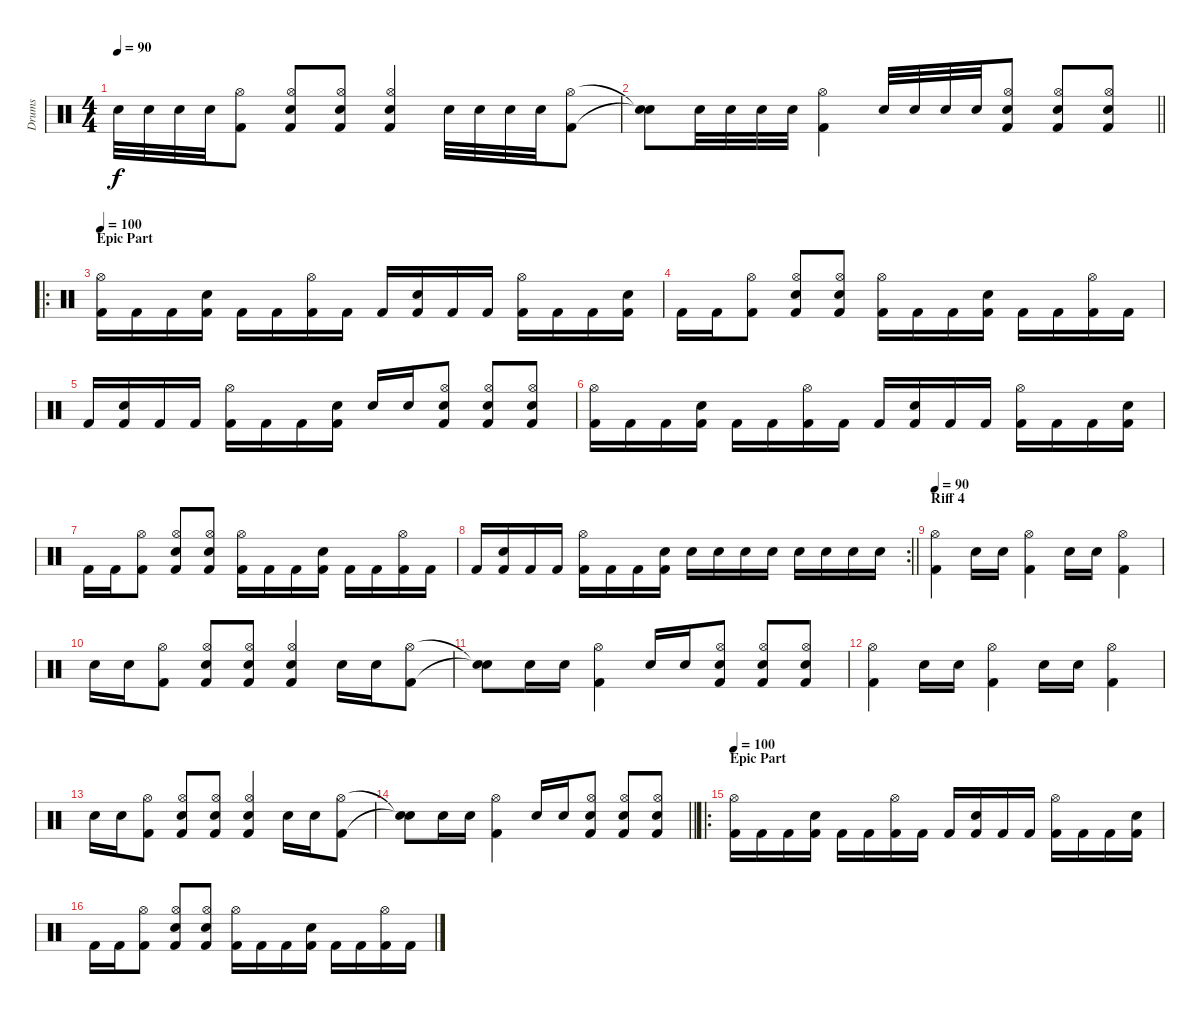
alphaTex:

\track ("Drums" "Drums") {instrument percussion}
\staff {score}
\articulation defaults
\ts (4 4)
\tempo 90
\clef neutral
\ks c "Snare (hit) 2".32{dy f} "Snare (hit) 2".32 "Snare (hit) 2".32 "Snare (hit) 2".32
("Hi-Hat (open)" "Kick (hit) 2").8 ("Hi-Hat (open)" "Snare (hit) 2" "Kick (hit) 2").8 ("Hi-Hat (open)" "Snare (hit) 2" "Kick (hit) 2").8 ("Hi-Hat (open)" "Snare (hit) 2" "Kick (hit) 2").4 "Snare (hit) 2".32 "Snare (hit) 2".32 "Snare (hit) 2".32 "Snare (hit) 2".32 ("Hi-Hat (open)" "Kick (hit) 2").8 |
\barLineRight lightlight
("Snare (hit)"{t} "Snare (hit)"{t}).8 "Snare (hit) 2".32 "Snare (hit) 2".32 "Snare (hit) 2".32 "Snare (hit) 2".32 ("Hi-Hat (open)" "Kick (hit) 2").4 "Snare (hit) 2".32 "Snare (hit) 2".32 "Snare (hit) 2".32 "Snare (hit) 2".32 ("Hi-Hat (open)" "Snare (hit) 2" "Kick (hit) 2").8 ("Hi-Hat (open)" "Snare (hit) 2" "Kick (hit) 2").8 ("Hi-Hat (open)" "Snare (hit) 2" "Kick (hit) 2").8 |
\ro
\section ("" "Epic Part")
\tempo 100
("Hi-Hat (open)" "Kick (hit) 2").16 "Kick (hit) 2".16 "Kick (hit) 2".16 ("Snare (hit) 2" "Kick (hit) 2").16 "Kick (hit) 2".16 "Kick (hit) 2".16 ("Hi-Hat (open)" "Kick (hit) 2").16 "Kick (hit) 2".16 "Kick (hit) 2".16 ("Snare (hit) 2" "Kick (hit) 2").16 "Kick (hit) 2".16 "Kick (hit) 2".16 ("Hi-Hat (open)" "Kick (hit) 2").16 "Kick (hit) 2".16 "Kick (hit) 2".16 ("Snare (hit) 2" "Kick (hit) 2").16 |
"Kick (hit) 2".16 "Kick (hit) 2".16 ("Hi-Hat (open)" "Kick (hit) 2").8 ("Hi-Hat (open)" "Snare (hit) 2" "Kick (hit) 2").8 ("Hi-Hat (open)" "Snare (hit) 2" "Kick (hit) 2").8 ("Hi-Hat (open)" "Kick (hit) 2").16 "Kick (hit) 2".16 "Kick (hit) 2".16 ("Snare (hit) 2" "Kick (hit) 2").16 "Kick (hit) 2".16 "Kick (hit) 2".16 ("Hi-Hat (open)" "Kick (hit) 2").16 "Kick (hit) 2".16 |
"Kick (hit) 2".16 ("Snare (hit) 2" "Kick (hit) 2").16 "Kick (hit) 2".16 "Kick (hit) 2".16 ("Hi-Hat (open)" "Kick (hit) 2").16 "Kick (hit) 2".16 "Kick (hit) 2".16 ("Snare (hit) 2" "Kick (hit) 2").16 "Snare (hit) 2".16 "Snare (hit) 2".16 ("Hi-Hat (open)" "Snare (hit) 2" "Kick (hit) 2").8 ("Hi-Hat (open)" "Snare (hit) 2" "Kick (hit) 2").8 ("Hi-Hat (open)" "Snare (hit) 2" "Kick (hit) 2").8 |
("Hi-Hat (open)" "Kick (hit) 2").16 "Kick (hit) 2".16 "Kick (hit) 2".16 ("Snare (hit) 2" "Kick (hit) 2").16 "Kick (hit) 2".16 "Kick (hit) 2".16 ("Hi-Hat (open)" "Kick (hit) 2").16 "Kick (hit) 2".16 "Kick (hit) 2".16 ("Snare (hit) 2" "Kick (hit) 2").16 "Kick (hit) 2".16 "Kick (hit) 2".16 ("Hi-Hat (open)" "Kick (hit) 2").16 "Kick (hit) 2".16 "Kick (hit) 2".16 ("Snare (hit) 2" "Kick (hit) 2").16 |
"Kick (hit) 2".16 "Kick (hit) 2".16 ("Hi-Hat (open)" "Kick (hit) 2").8 ("Hi-Hat (open)" "Snare (hit) 2" "Kick (hit) 2").8 ("Hi-Hat (open)" "Snare (hit) 2" "Kick (hit) 2").8 ("Hi-Hat (open)" "Kick (hit) 2").16 "Kick (hit) 2".16 "Kick (hit) 2".16 ("Snare (hit) 2" "Kick (hit) 2").16 "Kick (hit) 2".16 "Kick (hit) 2".16 ("Hi-Hat (open)" "Kick (hit) 2").16 "Kick (hit) 2".16 |
\rc 2
\barLineRight lightlight "Kick (hit) 2".16
("Snare (hit) 2" "Kick (hit) 2").16 "Kick (hit) 2".16 "Kick (hit) 2".16 ("Hi-Hat (open)" "Kick (hit) 2").16 "Kick (hit) 2".16 "Kick (hit) 2".16 ("Snare (hit) 2" "Kick (hit) 2").16 "Snare (hit) 2".16 "Snare (hit) 2".16 "Snare (hit) 2".16 "Snare (hit) 2".16 "Snare (hit) 2".16 "Snare (hit) 2".16 "Snare (hit) 2".16 "Snare (hit) 2".16 |
\section ("" "Riff 4")
\tempo 90
("Hi-Hat (open)" "Kick (hit) 2").4 "Snare (hit) 2".16 "Snare (hit) 2".16 ("Hi-Hat (open)" "Kick (hit) 2").4 "Snare (hit) 2".16 "Snare (hit) 2".16 ("Hi-Hat (open)" "Kick (hit) 2").4 |
"Snare (hit) 2".16 "Snare (hit) 2".16 ("Hi-Hat (open)" "Kick (hit) 2").8 ("Hi-Hat (open)" "Snare (hit) 2" "Kick (hit) 2").8 ("Hi-Hat (open)" "Snare (hit) 2" "Kick (hit) 2").8 ("Hi-Hat (open)" "Snare (hit) 2" "Kick (hit) 2").4 "Snare (hit) 2".16 "Snare (hit) 2".16 ("Hi-Hat (open)" "Kick (hit) 2").8 |
("Snare (hit)"{t} "Snare (hit)"{t}).8 "Snare (hit) 2".16 "Snare (hit) 2".16 ("Hi-Hat (open)" "Kick (hit) 2").4 "Snare (hit) 2".16 "Snare (hit) 2".16 ("Hi-Hat (open)" "Snare (hit) 2" "Kick (hit) 2").8 ("Hi-Hat (open)" "Snare (hit) 2" "Kick (hit) 2").8 ("Hi-Hat (open)" "Snare (hit) 2" "Kick (hit) 2").8 |
("Hi-Hat (open)" "Kick (hit) 2").4 "Snare (hit) 2".16 "Snare (hit) 2".16 ("Hi-Hat (open)" "Kick (hit) 2").4 "Snare (hit) 2".16 "Snare (hit) 2".16 ("Hi-Hat (open)" "Kick (hit) 2").4 |
"Snare (hit) 2".16 "Snare (hit) 2".16 ("Hi-Hat (open)" "Kick (hit) 2").8 ("Hi-Hat (open)" "Snare (hit) 2" "Kick (hit) 2").8 ("Hi-Hat (open)" "Snare (hit) 2" "Kick (hit) 2").8 ("Hi-Hat (open)" "Snare (hit) 2" "Kick (hit) 2").4 "Snare (hit) 2".16 "Snare (hit) 2".16 ("Hi-Hat (open)" "Kick (hit) 2").8 |
\barLineRight lightlight
("Snare (hit)"{t} "Snare (hit)"{t}).8 "Snare (hit) 2".16 "Snare (hit) 2".16 ("Hi-Hat (open)" "Kick (hit) 2").4 "Snare (hit) 2".16 "Snare (hit) 2".16 ("Hi-Hat (open)" "Snare (hit) 2" "Kick (hit) 2").8 ("Hi-Hat (open)" "Snare (hit) 2" "Kick (hit) 2").8 ("Hi-Hat (open)" "Snare (hit) 2" "Kick (hit) 2").8 |
\ro
\section ("" "Epic Part")
\tempo 100
("Hi-Hat (open)" "Kick (hit) 2").16 "Kick (hit) 2".16 "Kick (hit) 2".16 ("Snare (hit) 2" "Kick (hit) 2").16 "Kick (hit) 2".16 "Kick (hit) 2".16 ("Hi-Hat (open)" "Kick (hit) 2").16 "Kick (hit) 2".16 "Kick (hit) 2".16 ("Snare (hit) 2" "Kick (hit) 2").16 "Kick (hit) 2".16 "Kick (hit) 2".16 ("Hi-Hat (open)" "Kick (hit) 2").16 "Kick (hit) 2".16 "Kick (hit) 2".16 ("Snare (hit) 2" "Kick (hit) 2").16 |
"Kick (hit) 2".16 "Kick (hit) 2".16 ("Hi-Hat (open)" "Kick (hit) 2").8 ("Hi-Hat (open)" "Snare (hit) 2" "Kick (hit) 2").8 ("Hi-Hat (open)" "Snare (hit) 2" "Kick (hit) 2").8 ("Hi-Hat (open)" "Kick (hit) 2").16 "Kick (hit) 2".16 "Kick (hit) 2".16 ("Snare (hit) 2" "Kick (hit) 2").16 "Kick (hit) 2".16 "Kick (hit) 2".16 ("Hi-Hat (open)" "Kick (hit) 2").16 "Kick (hit) 2".16
